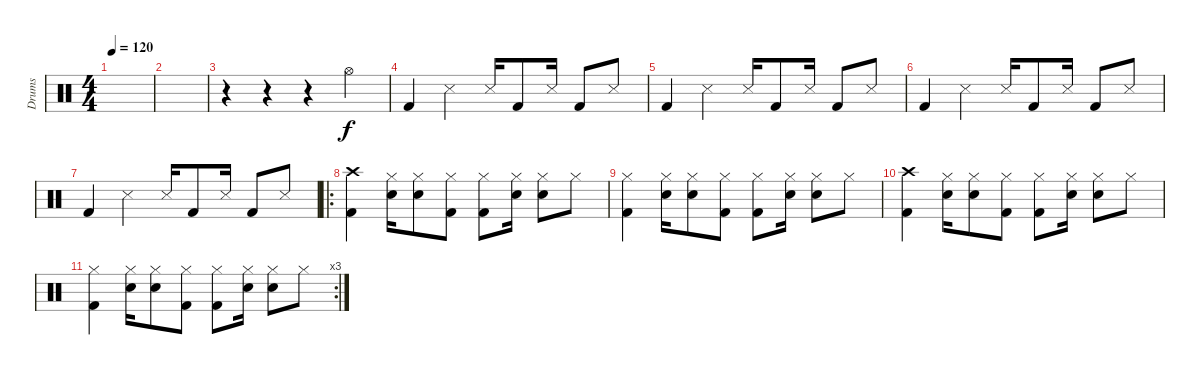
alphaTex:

\track ("Drums" "Drums") {instrument percussion}
\staff {score}
\articulation defaults
\ts (4 4)
\tempo 120
\clef neutral
\ks c
|
|
r.4 r.4 r.4 "Hi-Hat (open)".4 |
"Kick (hit) 2".4 "Snare (side stick) 3".4 "Snare (side stick) 3".16 "Kick (hit) 2".8 "Snare (side stick) 3".16 "Kick (hit) 2".8 "Snare (side stick) 3".8 |
"Kick (hit) 2".4 "Snare (side stick) 3".4 "Snare (side stick) 3".16 "Kick (hit) 2".8 "Snare (side stick) 3".16 "Kick (hit) 2".8 "Snare (side stick) 3".8 |
"Kick (hit) 2".4 "Snare (side stick) 3".4 "Snare (side stick) 3".16 "Kick (hit) 2".8 "Snare (side stick) 3".16 "Kick (hit) 2".8 "Snare (side stick) 3".8 |
"Kick (hit) 2".4 "Snare (side stick) 3".4 "Snare (side stick) 3".16 "Kick (hit) 2".8 "Snare (side stick) 3".16 "Kick (hit) 2".8 "Snare (side stick) 3".8 |
\ro
("Crash high (hit)" "Kick (hit) 2").4 ("Hi-Hat (closed)" "Snare (hit) 2").16 ("Hi-Hat (closed)" "Snare (hit) 2").8 ("Hi-Hat (closed)" "Kick (hit) 2").8 ("Hi-Hat (closed)" "Kick (hit) 2").8 ("Hi-Hat (closed)" "Snare (hit) 2").16 ("Hi-Hat (closed)" "Snare (hit) 2").8 "Hi-Hat (closed)".8 |
("Hi-Hat (closed)" "Kick (hit) 2").4 ("Hi-Hat (closed)" "Snare (hit) 2").16 ("Hi-Hat (closed)" "Snare (hit) 2").8 ("Hi-Hat (closed)" "Kick (hit) 2").8 ("Hi-Hat (closed)" "Kick (hit) 2").8 ("Hi-Hat (closed)" "Snare (hit) 2").16 ("Hi-Hat (closed)" "Snare (hit) 2").8 "Hi-Hat (closed)".8 |
("Crash high (hit)" "Kick (hit) 2").4 ("Hi-Hat (closed)" "Snare (hit) 2").16 ("Hi-Hat (closed)" "Snare (hit) 2").8 ("Hi-Hat (closed)" "Kick (hit) 2").8 ("Hi-Hat (closed)" "Kick (hit) 2").8 ("Hi-Hat (closed)" "Snare (hit) 2").16 ("Hi-Hat (closed)" "Snare (hit) 2").8 "Hi-Hat (closed)".8 |
\rc 3
("Hi-Hat (closed)" "Kick (hit) 2").4 ("Hi-Hat (closed)" "Snare (hit) 2").16 ("Hi-Hat (closed)" "Snare (hit) 2").8 ("Hi-Hat (closed)" "Kick (hit) 2").8 ("Hi-Hat (closed)" "Kick (hit) 2").8 ("Hi-Hat (closed)" "Snare (hit) 2").16 ("Hi-Hat (closed)" "Snare (hit) 2").8 "Hi-Hat (closed)".8
